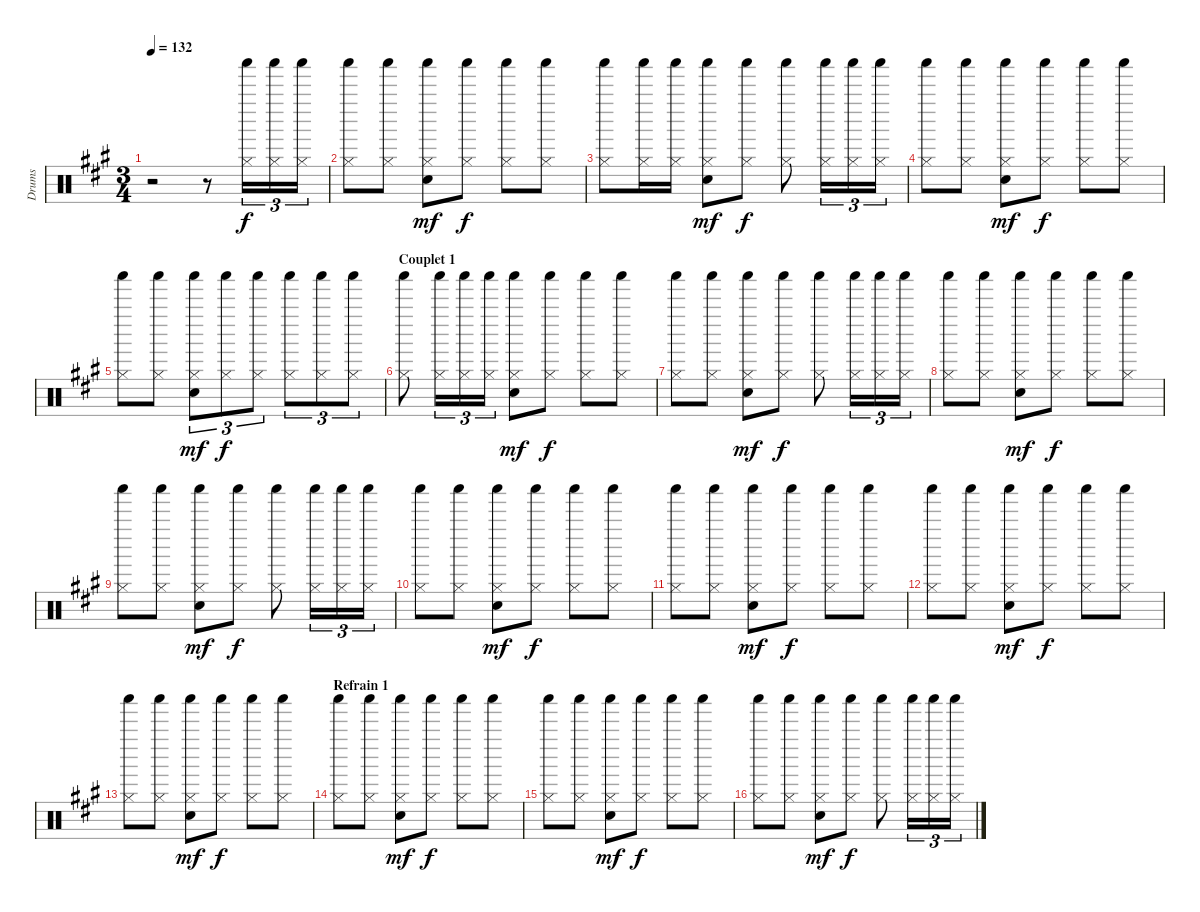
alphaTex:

\track ("Drums" "Drums") {instrument percussion}
\staff {score}
\articulation defaults
\ts (3 4)
\tempo 132
\clef neutral
\ks a
r.2{dy f} r.8 ("Shaker (hit)" "Hi-Hat (closed)").16{tu (3 2)} ("Shaker (hit)" "Hi-Hat (closed)").16{tu (3 2)} ("Shaker (hit)" "Hi-Hat (closed)").16{tu (3 2)} |
("Shaker (hit)" "Hi-Hat (closed)").8 ("Shaker (hit)" "Hi-Hat (closed)").8 ("Shaker (hit)" "Electric Snare (hit)" "Hi-Hat (closed)").8{dy mf} ("Shaker (hit)" "Hi-Hat (closed)").8{dy f} ("Shaker (hit)" "Hi-Hat (closed)").8 ("Shaker (hit)" "Hi-Hat (closed)").8 |
("Shaker (hit)" "Hi-Hat (closed)").8 ("Shaker (hit)" "Hi-Hat (closed)").16 ("Shaker (hit)" "Hi-Hat (closed)").16 ("Shaker (hit)" "Hi-Hat (closed)" "Electric Snare (hit)").8{dy mf} ("Shaker (hit)" "Hi-Hat (closed)").8{dy f} ("Shaker (hit)" "Hi-Hat (closed)").8 ("Shaker (hit)" "Hi-Hat (closed)").16{tu (3 2)} ("Shaker (hit)" "Hi-Hat (closed)").16{tu (3 2)} ("Shaker (hit)" "Hi-Hat (closed)").16{tu (3 2)} |
("Shaker (hit)" "Hi-Hat (closed)").8 ("Shaker (hit)" "Hi-Hat (closed)").8 ("Shaker (hit)" "Hi-Hat (closed)" "Electric Snare (hit)").8{dy mf} ("Shaker (hit)" "Hi-Hat (closed)").8{dy f} ("Shaker (hit)" "Hi-Hat (closed)").8 ("Shaker (hit)" "Hi-Hat (closed)").8 |
("Shaker (hit)" "Hi-Hat (closed)").8 ("Shaker (hit)" "Hi-Hat (closed)").8 ("Shaker (hit)" "Electric Snare (hit)" "Hi-Hat (closed)").8{tu (3 2) dy mf} ("Shaker (hit)" "Hi-Hat (closed)").8{tu (3 2) dy f} ("Shaker (hit)" "Hi-Hat (closed)").8{tu (3 2)} ("Shaker (hit)" "Hi-Hat (closed)").8{tu (3 2)} ("Shaker (hit)" "Hi-Hat (closed)").8{tu (3 2)} ("Shaker (hit)" "Hi-Hat (closed)").8{tu (3 2)} |
\section ("" "Couplet 1")
("Shaker (hit)" "Hi-Hat (closed)").8 ("Shaker (hit)" "Hi-Hat (closed)").16{tu (3 2)} ("Shaker (hit)" "Hi-Hat (closed)").16{tu (3 2)} ("Shaker (hit)" "Hi-Hat (closed)").16{tu (3 2)} ("Shaker (hit)" "Hi-Hat (closed)" "Electric Snare (hit)").8{dy mf} ("Shaker (hit)" "Hi-Hat (closed)").8{dy f} ("Shaker (hit)" "Hi-Hat (closed)").8 ("Shaker (hit)" "Hi-Hat (closed)").8 |
("Shaker (hit)" "Hi-Hat (closed)").8 ("Shaker (hit)" "Hi-Hat (closed)").8 ("Shaker (hit)" "Hi-Hat (closed)" "Electric Snare (hit)").8{dy mf} ("Shaker (hit)" "Hi-Hat (closed)").8{dy f} ("Shaker (hit)" "Hi-Hat (closed)").8 ("Shaker (hit)" "Hi-Hat (closed)").16{tu (3 2)} ("Shaker (hit)" "Hi-Hat (closed)").16{tu (3 2)} ("Shaker (hit)" "Hi-Hat (closed)").16{tu (3 2)} |
("Shaker (hit)" "Hi-Hat (closed)").8 ("Shaker (hit)" "Hi-Hat (closed)").8 ("Shaker (hit)" "Hi-Hat (closed)" "Electric Snare (hit)").8{dy mf} ("Shaker (hit)" "Hi-Hat (closed)").8{dy f} ("Shaker (hit)" "Hi-Hat (closed)").8 ("Shaker (hit)" "Hi-Hat (closed)").8 |
("Shaker (hit)" "Hi-Hat (closed)").8 ("Shaker (hit)" "Hi-Hat (closed)").8 ("Shaker (hit)" "Hi-Hat (closed)" "Electric Snare (hit)").8{dy mf} ("Shaker (hit)" "Hi-Hat (closed)").8{dy f} ("Shaker (hit)" "Hi-Hat (closed)").8 ("Shaker (hit)" "Hi-Hat (closed)").16{tu (3 2)} ("Shaker (hit)" "Hi-Hat (closed)").16{tu (3 2)} ("Shaker (hit)" "Hi-Hat (closed)").16{tu (3 2)} |
("Shaker (hit)" "Hi-Hat (closed)").8 ("Shaker (hit)" "Hi-Hat (closed)").8 ("Shaker (hit)" "Hi-Hat (closed)" "Electric Snare (hit)").8{dy mf} ("Shaker (hit)" "Hi-Hat (closed)").8{dy f} ("Shaker (hit)" "Hi-Hat (closed)").8 ("Shaker (hit)" "Hi-Hat (closed)").8 |
("Shaker (hit)" "Hi-Hat (closed)").8 ("Shaker (hit)" "Hi-Hat (closed)").8 ("Shaker (hit)" "Hi-Hat (closed)" "Electric Snare (hit)").8{dy mf} ("Shaker (hit)" "Hi-Hat (closed)").8{dy f} ("Shaker (hit)" "Hi-Hat (closed)").8 ("Shaker (hit)" "Hi-Hat (closed)").8 |
("Shaker (hit)" "Hi-Hat (closed)").8 ("Shaker (hit)" "Hi-Hat (closed)").8 ("Shaker (hit)" "Hi-Hat (closed)" "Electric Snare (hit)").8{dy mf} ("Shaker (hit)" "Hi-Hat (closed)").8{dy f} ("Shaker (hit)" "Hi-Hat (closed)").8 ("Shaker (hit)" "Hi-Hat (closed)").8 |
("Shaker (hit)" "Hi-Hat (closed)").8 ("Shaker (hit)" "Hi-Hat (closed)").8 ("Shaker (hit)" "Hi-Hat (closed)" "Electric Snare (hit)").8{dy mf} ("Shaker (hit)" "Hi-Hat (closed)").8{dy f} ("Shaker (hit)" "Hi-Hat (closed)").8 ("Shaker (hit)" "Hi-Hat (closed)").8 |
\section ("" "Refrain 1")
("Shaker (hit)" "Hi-Hat (closed)").8 ("Shaker (hit)" "Hi-Hat (closed)").8 ("Shaker (hit)" "Hi-Hat (closed)" "Electric Snare (hit)").8{dy mf} ("Shaker (hit)" "Hi-Hat (closed)").8{dy f} ("Shaker (hit)" "Hi-Hat (closed)").8 ("Shaker (hit)" "Hi-Hat (closed)").8 |
("Shaker (hit)" "Hi-Hat (closed)").8 ("Shaker (hit)" "Hi-Hat (closed)").8 ("Shaker (hit)" "Hi-Hat (closed)" "Electric Snare (hit)").8{dy mf} ("Shaker (hit)" "Hi-Hat (closed)").8{dy f} ("Shaker (hit)" "Hi-Hat (closed)").8 ("Shaker (hit)" "Hi-Hat (closed)").8 |
("Shaker (hit)" "Hi-Hat (closed)").8 ("Shaker (hit)" "Hi-Hat (closed)").8 ("Shaker (hit)" "Hi-Hat (closed)" "Electric Snare (hit)").8{dy mf} ("Shaker (hit)" "Hi-Hat (closed)").8{dy f} ("Shaker (hit)" "Hi-Hat (closed)").8 ("Shaker (hit)" "Hi-Hat (closed)").16{tu (3 2)} ("Shaker (hit)" "Hi-Hat (closed)").16{tu (3 2)} ("Shaker (hit)" "Hi-Hat (closed)").16{tu (3 2)}
